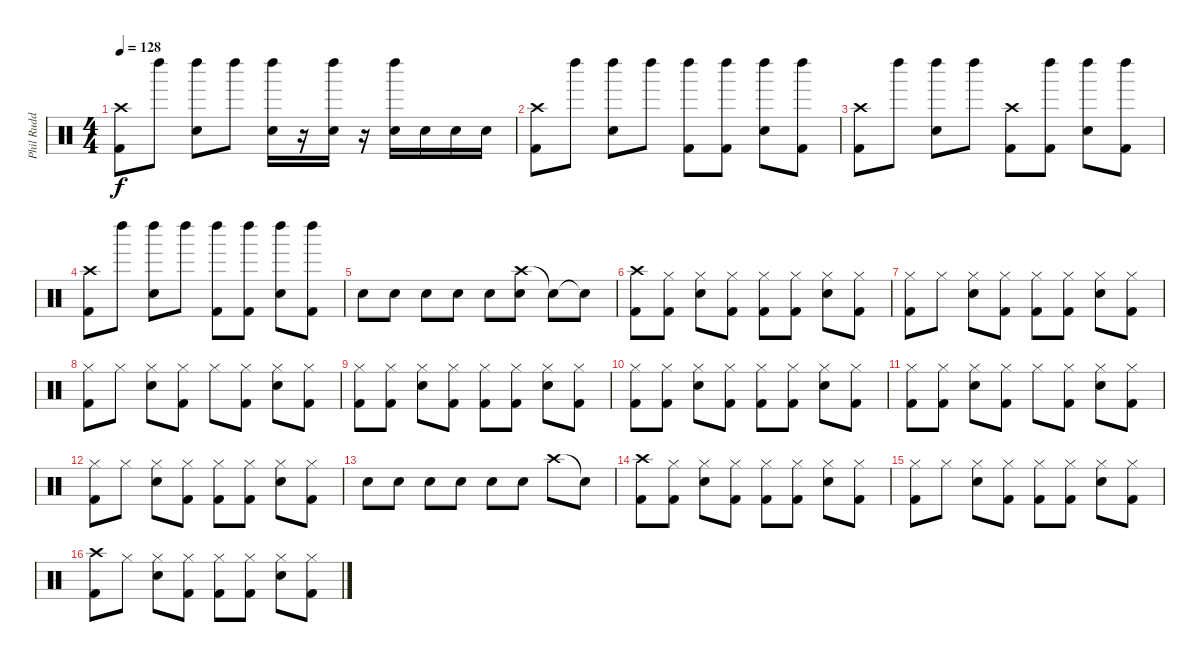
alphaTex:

\track ("Phil Rudd" "Phil Rudd") {instrument percussion}
\staff {score}
\articulation defaults
\ts (4 4)
\tempo 128
\clef neutral
\ks c
("Crash high (hit)" "Kick (hit) 2").8{dy f} "Left Maraca (hit)".8 ("Left Maraca (hit)" "Snare (hit) 2").8 "Left Maraca (hit)".8 ("Left Maraca (hit)" "Snare (hit) 2").16 r.16 ("Left Maraca (hit)" "Snare (hit) 2").16 r.16 ("Left Maraca (hit)" "Snare (hit) 2").16 "Snare (hit) 2".16 "Snare (hit) 2".16 "Snare (hit) 2".16 |
("Crash high (hit)" "Kick (hit) 2").8 "Left Maraca (hit)".8 ("Left Maraca (hit)" "Snare (hit) 2").8 "Left Maraca (hit)".8 ("Left Maraca (hit)" "Kick (hit) 2").8 ("Left Maraca (hit)" "Kick (hit) 2").8 ("Left Maraca (hit)" "Snare (hit) 2").8 ("Left Maraca (hit)" "Kick (hit) 2").8 |
("Crash high (hit)" "Kick (hit) 2").8 "Left Maraca (hit)".8 ("Left Maraca (hit)" "Snare (hit) 2").8 "Left Maraca (hit)".8 ("Crash high (hit)" "Kick (hit) 2").8 ("Left Maraca (hit)" "Kick (hit) 2").8 ("Left Maraca (hit)" "Snare (hit) 2").8 ("Left Maraca (hit)" "Kick (hit) 2").8 |
("Crash high (hit)" "Kick (hit) 2").8 "Left Maraca (hit)".8 ("Left Maraca (hit)" "Snare (hit) 2").8 "Left Maraca (hit)".8 ("Left Maraca (hit)" "Kick (hit) 2").8 ("Left Maraca (hit)" "Kick (hit) 2").8 ("Left Maraca (hit)" "Snare (hit) 2").8 ("Left Maraca (hit)" "Kick (hit) 2").8 |
"Snare (hit) 2".8 "Snare (hit) 2".8 "Snare (hit) 2".8 "Snare (hit) 2".8 "Snare (hit) 2".8 ("Crash high (hit)" "Snare (hit) 2").8 "Snare (hit)"{t}.8 "Snare (hit)"{t}.8 |
("Crash high (hit)" "Kick (hit) 2").8 ("Hi-Hat (closed)" "Kick (hit) 2").8 ("Hi-Hat (closed)" "Snare (hit) 2").8 ("Hi-Hat (closed)" "Kick (hit) 2").8 ("Hi-Hat (closed)" "Kick (hit) 2").8 ("Hi-Hat (closed)" "Kick (hit) 2").8 ("Hi-Hat (closed)" "Snare (hit) 2").8 ("Hi-Hat (closed)" "Kick (hit) 2").8 |
("Hi-Hat (closed)" "Kick (hit) 2").8 "Hi-Hat (closed)".8 ("Hi-Hat (closed)" "Snare (hit) 2").8 ("Hi-Hat (closed)" "Kick (hit) 2").8 ("Hi-Hat (closed)" "Kick (hit) 2").8 ("Hi-Hat (closed)" "Kick (hit) 2").8 ("Hi-Hat (closed)" "Snare (hit) 2").8 ("Hi-Hat (closed)" "Kick (hit) 2").8 |
("Hi-Hat (closed)" "Kick (hit) 2").8 "Hi-Hat (closed)".8 ("Hi-Hat (closed)" "Snare (hit) 2").8 ("Hi-Hat (closed)" "Kick (hit) 2").8 "Hi-Hat (closed)".8 ("Hi-Hat (closed)" "Kick (hit) 2").8 ("Hi-Hat (closed)" "Snare (hit) 2").8 ("Hi-Hat (closed)" "Kick (hit) 2").8 |
("Hi-Hat (closed)" "Kick (hit) 2").8 ("Hi-Hat (closed)" "Kick (hit) 2").8 ("Hi-Hat (closed)" "Snare (hit) 2").8 ("Hi-Hat (closed)" "Kick (hit) 2").8 ("Hi-Hat (closed)" "Kick (hit) 2").8 ("Hi-Hat (closed)" "Kick (hit) 2").8 ("Hi-Hat (closed)" "Snare (hit) 2").8 ("Hi-Hat (closed)" "Kick (hit) 2").8 |
("Hi-Hat (closed)" "Kick (hit) 2").8 ("Hi-Hat (closed)" "Kick (hit) 2").8 ("Hi-Hat (closed)" "Snare (hit) 2").8 ("Hi-Hat (closed)" "Kick (hit) 2").8 ("Hi-Hat (closed)" "Kick (hit) 2").8 ("Hi-Hat (closed)" "Kick (hit) 2").8 ("Hi-Hat (closed)" "Snare (hit) 2").8 ("Hi-Hat (closed)" "Kick (hit) 2").8 |
("Hi-Hat (closed)" "Kick (hit) 2").8 ("Hi-Hat (closed)" "Kick (hit) 2").8 ("Hi-Hat (closed)" "Snare (hit) 2").8 ("Hi-Hat (closed)" "Kick (hit) 2").8 "Hi-Hat (closed)".8 ("Hi-Hat (closed)" "Kick (hit) 2").8 ("Hi-Hat (closed)" "Snare (hit) 2").8 ("Hi-Hat (closed)" "Kick (hit) 2").8 |
("Hi-Hat (closed)" "Kick (hit) 2").8 "Hi-Hat (closed)".8 ("Hi-Hat (closed)" "Snare (hit) 2").8 ("Hi-Hat (closed)" "Kick (hit) 2").8 ("Hi-Hat (closed)" "Kick (hit) 2").8 ("Hi-Hat (closed)" "Kick (hit) 2").8 ("Hi-Hat (closed)" "Snare (hit) 2").8 ("Hi-Hat (closed)" "Kick (hit) 2").8 |
"Snare (hit) 2".8 "Snare (hit) 2".8 "Snare (hit) 2".8 "Snare (hit) 2".8 "Snare (hit) 2".8 "Snare (hit) 2".8 "Crash high (hit)".8 "Snare (hit)"{t}.8 |
("Crash high (hit)" "Kick (hit) 2").8 ("Hi-Hat (closed)" "Kick (hit) 2").8 ("Hi-Hat (closed)" "Snare (hit) 2").8 ("Hi-Hat (closed)" "Kick (hit) 2").8 ("Hi-Hat (closed)" "Kick (hit) 2").8 ("Hi-Hat (closed)" "Kick (hit) 2").8 ("Hi-Hat (closed)" "Snare (hit) 2").8 ("Hi-Hat (closed)" "Kick (hit) 2").8 |
("Hi-Hat (closed)" "Kick (hit) 2").8 "Hi-Hat (closed)".8 ("Hi-Hat (closed)" "Snare (hit) 2").8 ("Hi-Hat (closed)" "Kick (hit) 2").8 ("Hi-Hat (closed)" "Kick (hit) 2").8 ("Hi-Hat (closed)" "Kick (hit) 2").8 ("Hi-Hat (closed)" "Snare (hit) 2").8 ("Hi-Hat (closed)" "Kick (hit) 2").8 |
("Crash high (hit)" "Kick (hit) 2").8 "Hi-Hat (closed)".8 ("Hi-Hat (closed)" "Snare (hit) 2").8 ("Hi-Hat (closed)" "Kick (hit) 2").8 ("Hi-Hat (closed)" "Kick (hit) 2").8 ("Hi-Hat (closed)" "Kick (hit) 2").8 ("Hi-Hat (closed)" "Snare (hit) 2").8 ("Hi-Hat (closed)" "Kick (hit) 2").8
